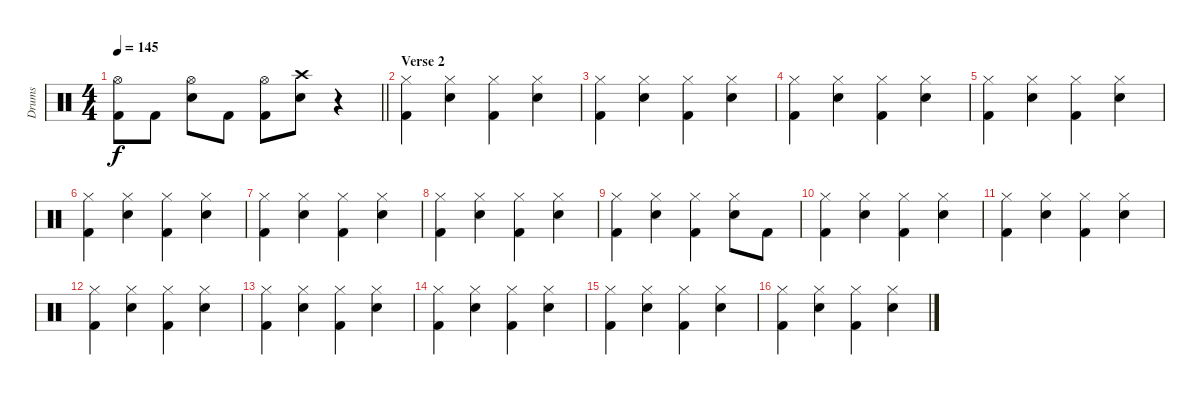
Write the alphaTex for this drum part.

\track ("Drums" "Drums") {instrument percussion}
\staff {score}
\articulation defaults
\ts (4 4)
\tempo 145
\clef neutral
\barLineRight lightlight
\ks c
("Kick (hit) 2" "Hi-Hat (open)").8{dy f} "Kick (hit) 2".8 ("Electric Snare (hit)" "Hi-Hat (open)").8 "Kick (hit) 2".8 ("Kick (hit) 2" "Hi-Hat (open)").8 ("Electric Snare (hit)" "Crash high (hit)").8 r.4 |
\section ("" "Verse 2")
("Kick (hit) 2" "Hi-Hat (closed)").4 ("Electric Snare (hit)" "Hi-Hat (closed)").4 ("Kick (hit) 2" "Hi-Hat (closed)").4 ("Electric Snare (hit)" "Hi-Hat (closed)").4 |
("Kick (hit) 2" "Hi-Hat (closed)").4 ("Electric Snare (hit)" "Hi-Hat (closed)").4 ("Kick (hit) 2" "Hi-Hat (closed)").4 ("Electric Snare (hit)" "Hi-Hat (closed)").4 |
("Kick (hit) 2" "Hi-Hat (closed)").4 ("Electric Snare (hit)" "Hi-Hat (closed)").4 ("Kick (hit) 2" "Hi-Hat (closed)").4 ("Electric Snare (hit)" "Hi-Hat (closed)").4 |
("Kick (hit) 2" "Hi-Hat (closed)").4 ("Electric Snare (hit)" "Hi-Hat (closed)").4 ("Kick (hit) 2" "Hi-Hat (closed)").4 ("Electric Snare (hit)" "Hi-Hat (closed)").4 |
("Kick (hit) 2" "Hi-Hat (closed)").4 ("Electric Snare (hit)" "Hi-Hat (closed)").4 ("Kick (hit) 2" "Hi-Hat (closed)").4 ("Electric Snare (hit)" "Hi-Hat (closed)").4 |
("Kick (hit) 2" "Hi-Hat (closed)").4 ("Electric Snare (hit)" "Hi-Hat (closed)").4 ("Kick (hit) 2" "Hi-Hat (closed)").4 ("Electric Snare (hit)" "Hi-Hat (closed)").4 |
("Kick (hit) 2" "Hi-Hat (closed)").4 ("Electric Snare (hit)" "Hi-Hat (closed)").4 ("Kick (hit) 2" "Hi-Hat (closed)").4 ("Electric Snare (hit)" "Hi-Hat (closed)").4 |
("Kick (hit) 2" "Hi-Hat (closed)").4 ("Electric Snare (hit)" "Hi-Hat (closed)").4 ("Kick (hit) 2" "Hi-Hat (closed)").4 ("Electric Snare (hit)" "Hi-Hat (closed)").8 "Kick (hit) 2".8 |
("Kick (hit) 2" "Hi-Hat (closed)").4 ("Electric Snare (hit)" "Hi-Hat (closed)").4 ("Kick (hit) 2" "Hi-Hat (closed)").4 ("Electric Snare (hit)" "Hi-Hat (closed)").4 |
("Kick (hit) 2" "Hi-Hat (closed)").4 ("Electric Snare (hit)" "Hi-Hat (closed)").4 ("Kick (hit) 2" "Hi-Hat (closed)").4 ("Electric Snare (hit)" "Hi-Hat (closed)").4 |
("Kick (hit) 2" "Hi-Hat (closed)").4 ("Electric Snare (hit)" "Hi-Hat (closed)").4 ("Kick (hit) 2" "Hi-Hat (closed)").4 ("Electric Snare (hit)" "Hi-Hat (closed)").4 |
("Kick (hit) 2" "Hi-Hat (closed)").4 ("Electric Snare (hit)" "Hi-Hat (closed)").4 ("Kick (hit) 2" "Hi-Hat (closed)").4 ("Electric Snare (hit)" "Hi-Hat (closed)").4 |
("Kick (hit) 2" "Hi-Hat (closed)").4 ("Electric Snare (hit)" "Hi-Hat (closed)").4 ("Kick (hit) 2" "Hi-Hat (closed)").4 ("Electric Snare (hit)" "Hi-Hat (closed)").4 |
("Kick (hit) 2" "Hi-Hat (closed)").4 ("Electric Snare (hit)" "Hi-Hat (closed)").4 ("Kick (hit) 2" "Hi-Hat (closed)").4 ("Electric Snare (hit)" "Hi-Hat (closed)").4 |
("Kick (hit) 2" "Hi-Hat (closed)").4 ("Electric Snare (hit)" "Hi-Hat (closed)").4 ("Kick (hit) 2" "Hi-Hat (closed)").4 ("Electric Snare (hit)" "Hi-Hat (closed)").4
